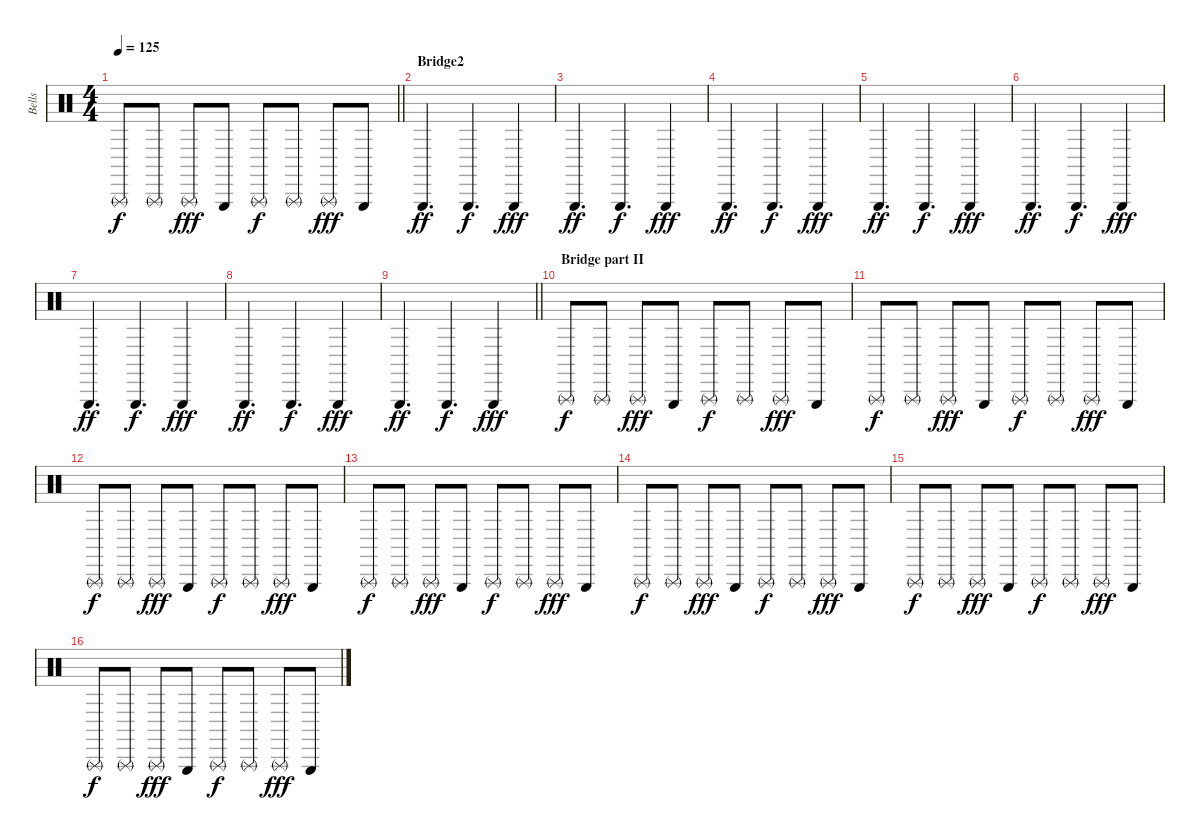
\track ("Bells" "Bells") {instrument percussion}
\staff
\articulation defaults
\ts (4 4)
\tempo 125
\clef neutral
\barLineRight lightlight
\ks c "Triangle (rnute)".8{dy f} "Triangle (rnute)".8 "Triangle (rnute)".8{dy fff} "Triangle (hit)".8 "Triangle (rnute)".8{dy f} "Triangle (rnute)".8 "Triangle (rnute)".8{dy fff} "Triangle (hit)".8
|
\section ("" "Bridge2")
"Triangle (hit)".4{d dy ff} "Triangle (hit)".4{d dy f} "Triangle (hit)".4{dy fff} |
"Triangle (hit)".4{d dy ff} "Triangle (hit)".4{d dy f} "Triangle (hit)".4{dy fff} |
"Triangle (hit)".4{d dy ff} "Triangle (hit)".4{d dy f} "Triangle (hit)".4{dy fff} |
"Triangle (hit)".4{d dy ff} "Triangle (hit)".4{d dy f} "Triangle (hit)".4{dy fff} |
"Triangle (hit)".4{d dy ff} "Triangle (hit)".4{d dy f} "Triangle (hit)".4{dy fff} |
"Triangle (hit)".4{d dy ff} "Triangle (hit)".4{d dy f} "Triangle (hit)".4{dy fff} |
"Triangle (hit)".4{d dy ff} "Triangle (hit)".4{d dy f} "Triangle (hit)".4{dy fff} |
\barLineRight lightlight "Triangle (hit)".4{d dy ff} "Triangle (hit)".4{d dy f} "Triangle (hit)".4{dy fff}
|
\section ("" "Bridge part II")
"Triangle (rnute)".8{dy f} "Triangle (rnute)".8 "Triangle (rnute)".8{dy fff} "Triangle (hit)".8 "Triangle (rnute)".8{dy f} "Triangle (rnute)".8 "Triangle (rnute)".8{dy fff} "Triangle (hit)".8 |
"Triangle (rnute)".8{dy f} "Triangle (rnute)".8 "Triangle (rnute)".8{dy fff} "Triangle (hit)".8 "Triangle (rnute)".8{dy f} "Triangle (rnute)".8 "Triangle (rnute)".8{dy fff} "Triangle (hit)".8 |
"Triangle (rnute)".8{dy f} "Triangle (rnute)".8 "Triangle (rnute)".8{dy fff} "Triangle (hit)".8 "Triangle (rnute)".8{dy f} "Triangle (rnute)".8 "Triangle (rnute)".8{dy fff} "Triangle (hit)".8 |
"Triangle (rnute)".8{dy f} "Triangle (rnute)".8 "Triangle (rnute)".8{dy fff} "Triangle (hit)".8 "Triangle (rnute)".8{dy f} "Triangle (rnute)".8 "Triangle (rnute)".8{dy fff} "Triangle (hit)".8 |
"Triangle (rnute)".8{dy f} "Triangle (rnute)".8 "Triangle (rnute)".8{dy fff} "Triangle (hit)".8 "Triangle (rnute)".8{dy f} "Triangle (rnute)".8 "Triangle (rnute)".8{dy fff} "Triangle (hit)".8 |
"Triangle (rnute)".8{dy f} "Triangle (rnute)".8 "Triangle (rnute)".8{dy fff} "Triangle (hit)".8 "Triangle (rnute)".8{dy f} "Triangle (rnute)".8 "Triangle (rnute)".8{dy fff} "Triangle (hit)".8 |
"Triangle (rnute)".8{dy f} "Triangle (rnute)".8 "Triangle (rnute)".8{dy fff} "Triangle (hit)".8 "Triangle (rnute)".8{dy f} "Triangle (rnute)".8 "Triangle (rnute)".8{dy fff} "Triangle (hit)".8
